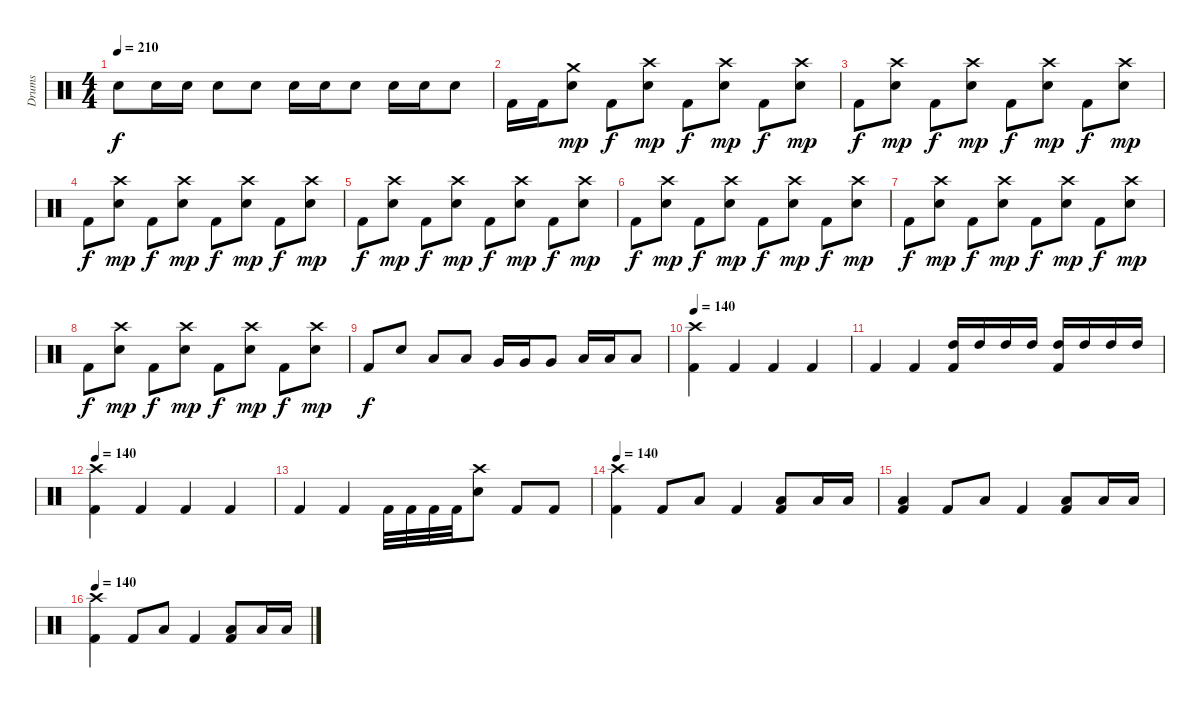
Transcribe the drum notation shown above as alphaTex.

\track ("Drums" "Drums") {instrument percussion}
\staff {score}
\articulation defaults
\ts (4 4)
\tempo 210
\clef neutral
\ks c "Electric Snare (hit)".8{dy f} "Electric Snare (hit)".16 "Electric Snare (hit)".16 "Electric Snare (hit)".8 "Electric Snare (hit)".8 "Electric Snare (hit)".16 "Electric Snare (hit)".16 "Electric Snare (hit)".8 "Electric Snare (hit)".16 "Electric Snare (hit)".16 "Electric Snare (hit)".8
|
"Kick (hit) 2".16 "Kick (hit) 2".16 ("Crash medium (hit)" "Electric Snare (hit)").8{dy mp} "Kick (hit) 2".8{dy f} ("Crash high (hit)" "Electric Snare (hit)").8{dy mp} "Kick (hit) 2".8{dy f} ("Crash high (hit)" "Electric Snare (hit)").8{dy mp} "Kick (hit) 2".8{dy f} ("Crash high (hit)" "Electric Snare (hit)").8{dy mp} |
"Kick (hit) 2".8{dy f} ("Crash high (hit)" "Electric Snare (hit)").8{dy mp} "Kick (hit) 2".8{dy f} ("Crash high (hit)" "Electric Snare (hit)").8{dy mp} "Kick (hit) 2".8{dy f} ("Crash high (hit)" "Electric Snare (hit)").8{dy mp} "Kick (hit) 2".8{dy f} ("Crash high (hit)" "Electric Snare (hit)").8{dy mp} |
"Kick (hit) 2".8{dy f} ("Crash high (hit)" "Electric Snare (hit)").8{dy mp} "Kick (hit) 2".8{dy f} ("Crash high (hit)" "Electric Snare (hit)").8{dy mp} "Kick (hit) 2".8{dy f} ("Crash high (hit)" "Electric Snare (hit)").8{dy mp} "Kick (hit) 2".8{dy f} ("Crash high (hit)" "Electric Snare (hit)").8{dy mp} |
"Kick (hit) 2".8{dy f} ("Crash high (hit)" "Electric Snare (hit)").8{dy mp} "Kick (hit) 2".8{dy f} ("Crash high (hit)" "Electric Snare (hit)").8{dy mp} "Kick (hit) 2".8{dy f} ("Crash high (hit)" "Electric Snare (hit)").8{dy mp} "Kick (hit) 2".8{dy f} ("Crash high (hit)" "Electric Snare (hit)").8{dy mp} |
"Kick (hit) 2".8{dy f} ("Crash high (hit)" "Electric Snare (hit)").8{dy mp} "Kick (hit) 2".8{dy f} ("Crash high (hit)" "Electric Snare (hit)").8{dy mp} "Kick (hit) 2".8{dy f} ("Crash high (hit)" "Electric Snare (hit)").8{dy mp} "Kick (hit) 2".8{dy f} ("Crash high (hit)" "Electric Snare (hit)").8{dy mp} |
"Kick (hit) 2".8{dy f} ("Crash high (hit)" "Electric Snare (hit)").8{dy mp} "Kick (hit) 2".8{dy f} ("Crash high (hit)" "Electric Snare (hit)").8{dy mp} "Kick (hit) 2".8{dy f} ("Crash high (hit)" "Electric Snare (hit)").8{dy mp} "Kick (hit) 2".8{dy f} ("Crash high (hit)" "Electric Snare (hit)").8{dy mp} |
"Kick (hit) 2".8{dy f} ("Crash high (hit)" "Electric Snare (hit)").8{dy mp} "Kick (hit) 2".8{dy f} ("Crash high (hit)" "Electric Snare (hit)").8{dy mp} "Kick (hit) 2".8{dy f} ("Crash high (hit)" "Electric Snare (hit)").8{dy mp} "Kick (hit) 2".8{dy f} ("Crash high (hit)" "Electric Snare (hit)").8{dy mp} |
"Kick (hit) 2".8{dy f} "Electric Snare (hit)".8 "Low Tom (hit)".8 "Low Tom (hit)".8 "Very Low Tom (hit)".16 "Very Low Tom (hit)".16 "Very Low Tom (hit)".8 "Low Floor Tom (hit)".16 "Low Floor Tom (hit)".16 "Low Floor Tom (hit)".8 |
\tempo 140
("Crash high (hit)" "Kick (hit) 2").4 "Kick (hit) 2".4 "Kick (hit) 2".4 "Kick (hit) 2".4 |
"Kick (hit) 2".4 "Kick (hit) 2".4 ("High Tom (hit)" "Kick (hit) 2").16 "High Tom (hit)".16 "High Tom (hit)".16 "High Tom (hit)".16 ("High Tom (hit)" "Kick (hit) 2").16 "High Tom (hit)".16 "High Tom (hit)".16 "High Tom (hit)".16 |
\tempo 140
("Crash high (hit)" "Kick (hit) 2").4 "Kick (hit) 2".4 "Kick (hit) 2".4 "Kick (hit) 2".4 |
"Kick (hit) 2".4 "Kick (hit) 2".4 "Kick (hit) 2".32 "Kick (hit) 2".32 "Kick (hit) 2".32 "Kick (hit) 2".32 ("Crash high (hit)" "Electric Snare (hit)").8 "Kick (hit) 2".8 "Kick (hit) 2".8 |
\tempo 140
("Crash high (hit)" "Kick (hit) 2").4 "Kick (hit) 2".8 "Low Floor Tom (hit)".8 "Kick (hit) 2".4 ("Low Floor Tom (hit)" "Kick (hit) 2").8 "Low Floor Tom (hit)".16 "Low Floor Tom (hit)".16 |
("Low Floor Tom (hit)" "Kick (hit) 2").4 "Kick (hit) 2".8 "Low Floor Tom (hit)".8 "Kick (hit) 2".4 ("Low Floor Tom (hit)" "Kick (hit) 2").8 "Low Floor Tom (hit)".16 "Low Floor Tom (hit)".16 |
\tempo 140
("Crash high (hit)" "Kick (hit) 2").4 "Kick (hit) 2".8 "Low Floor Tom (hit)".8 "Kick (hit) 2".4 ("Low Floor Tom (hit)" "Kick (hit) 2").8 "Low Floor Tom (hit)".16 "Low Floor Tom (hit)".16
